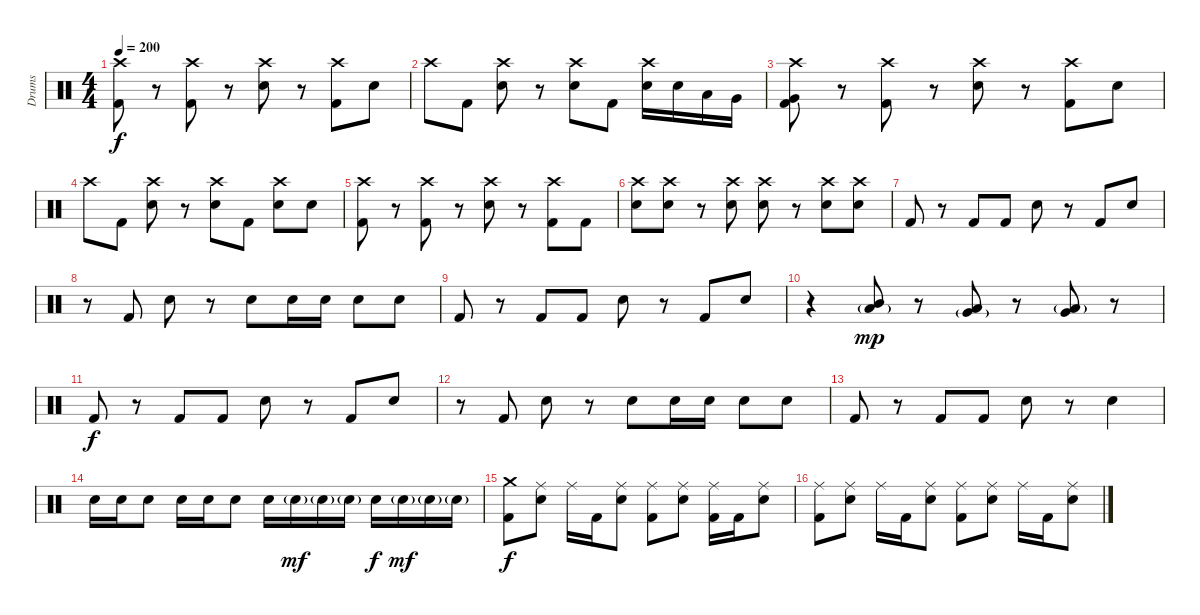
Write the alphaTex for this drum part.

\track ("Drums" "Drums") {instrument percussion}
\staff {score}
\articulation defaults
\ts (4 4)
\tempo 200
\clef neutral
\ks c
("Crash high (hit)" "Kick (hit) 2").8{dy f} r.8 ("Crash high (hit)" "Kick (hit) 2").8 r.8 ("Crash high (hit)" "Electric Snare (hit)").8 r.8 ("Crash high (hit)" "Kick (hit) 2").8 "Electric Snare (hit)".8 |
"Crash high (hit)".8 "Kick (hit) 2".8 ("Crash high (hit)" "Electric Snare (hit)").8 r.8 ("Crash high (hit)" "Electric Snare (hit)").8 "Kick (hit) 2".8 ("Crash high (hit)" "Electric Snare (hit)").16 "Electric Snare (hit)".16 "Low Tom (hit)".16 "Very Low Tom (hit)".16 |
("Crash high (hit)" "Very Low Tom (hit)" "Kick (hit) 2").8 r.8 ("Crash high (hit)" "Kick (hit) 2").8 r.8 ("Crash high (hit)" "Electric Snare (hit)").8 r.8 ("Crash high (hit)" "Kick (hit) 2").8 "Electric Snare (hit)".8 |
"Crash high (hit)".8 "Kick (hit) 2".8 ("Crash high (hit)" "Electric Snare (hit)").8 r.8 ("Crash high (hit)" "Electric Snare (hit)").8 "Kick (hit) 2".8 ("Crash high (hit)" "Electric Snare (hit)").8 "Electric Snare (hit)".8 |
("Crash high (hit)" "Kick (hit) 2").8 r.8 ("Crash high (hit)" "Kick (hit) 2").8 r.8 ("Crash high (hit)" "Electric Snare (hit)").8 r.8 ("Crash high (hit)" "Kick (hit) 2").8 "Kick (hit) 2".8 |
("Crash high (hit)" "Electric Snare (hit)").8 ("Crash high (hit)" "Electric Snare (hit)").8 r.8 ("Crash high (hit)" "Electric Snare (hit)").8 ("Crash high (hit)" "Electric Snare (hit)").8 r.8 ("Crash high (hit)" "Electric Snare (hit)").8 ("Crash high (hit)" "Electric Snare (hit)").8 |
"Kick (hit) 2".8 r.8 "Kick (hit) 2".8 "Kick (hit) 2".8 "Electric Snare (hit)".8 r.8 "Kick (hit) 2".8 "Electric Snare (hit)".8 |
r.8 "Kick (hit) 2".8 "Electric Snare (hit)".8 r.8 "Electric Snare (hit)".8 "Electric Snare (hit)".16 "Electric Snare (hit)".16 "Electric Snare (hit)".8 "Electric Snare (hit)".8 |
"Kick (hit) 2".8 r.8 "Kick (hit) 2".8 "Kick (hit) 2".8 "Electric Snare (hit)".8 r.8 "Kick (hit) 2".8 "Electric Snare (hit)".8 |
r.4 ("Low Tom (hit)"{g} "Mid Tom (hit)").8{dy mp} r.8 ("Very Low Tom (hit)"{g} "Low Tom (hit)").8 r.8 ("Low Floor Tom (hit)"{g} "Very Low Tom (hit)").8 r.8 |
"Kick (hit) 2".8{dy f} r.8 "Kick (hit) 2".8 "Kick (hit) 2".8 "Electric Snare (hit)".8 r.8 "Kick (hit) 2".8 "Electric Snare (hit)".8 |
r.8 "Kick (hit) 2".8 "Electric Snare (hit)".8 r.8 "Electric Snare (hit)".8 "Electric Snare (hit)".16 "Electric Snare (hit)".16 "Electric Snare (hit)".8 "Electric Snare (hit)".8 |
"Kick (hit) 2".8 r.8 "Kick (hit) 2".8 "Kick (hit) 2".8 "Electric Snare (hit)".8 r.8 "Electric Snare (hit)".4 |
"Electric Snare (hit)".16 "Electric Snare (hit)".16 "Electric Snare (hit)".8 "Electric Snare (hit)".16 "Electric Snare (hit)".16 "Electric Snare (hit)".8 "Electric Snare (hit)".16 "Electric Snare (hit)"{g}.16{dy mf} "Electric Snare (hit)"{g}.16 "Electric Snare (hit)"{g}.16 "Electric Snare (hit)".16{dy f} "Electric Snare (hit)"{g}.16{dy mf} "Electric Snare (hit)"{g}.16 "Electric Snare (hit)"{g}.16 |
("Crash medium (hit)" "Kick (hit) 2").8{dy f} ("Ride (middle)" "Electric Snare (hit)").8 "Ride (middle)".16 "Kick (hit) 2".16 ("Ride (middle)" "Electric Snare (hit)").8 ("Ride (middle)" "Kick (hit) 2").8 ("Ride (middle)" "Electric Snare (hit)").8 ("Ride (middle)" "Kick (hit) 2").16 "Kick (hit) 2".16 ("Ride (middle)" "Electric Snare (hit)").8 |
("Ride (middle)" "Kick (hit) 2").8 ("Ride (middle)" "Electric Snare (hit)").8 "Ride (middle)".16 "Kick (hit) 2".16 ("Ride (middle)" "Electric Snare (hit)").8 ("Ride (middle)" "Kick (hit) 2").8 ("Ride (middle)" "Electric Snare (hit)").8 "Ride (middle)".16 "Kick (hit) 2".16 ("Ride (middle)" "Electric Snare (hit)").8
